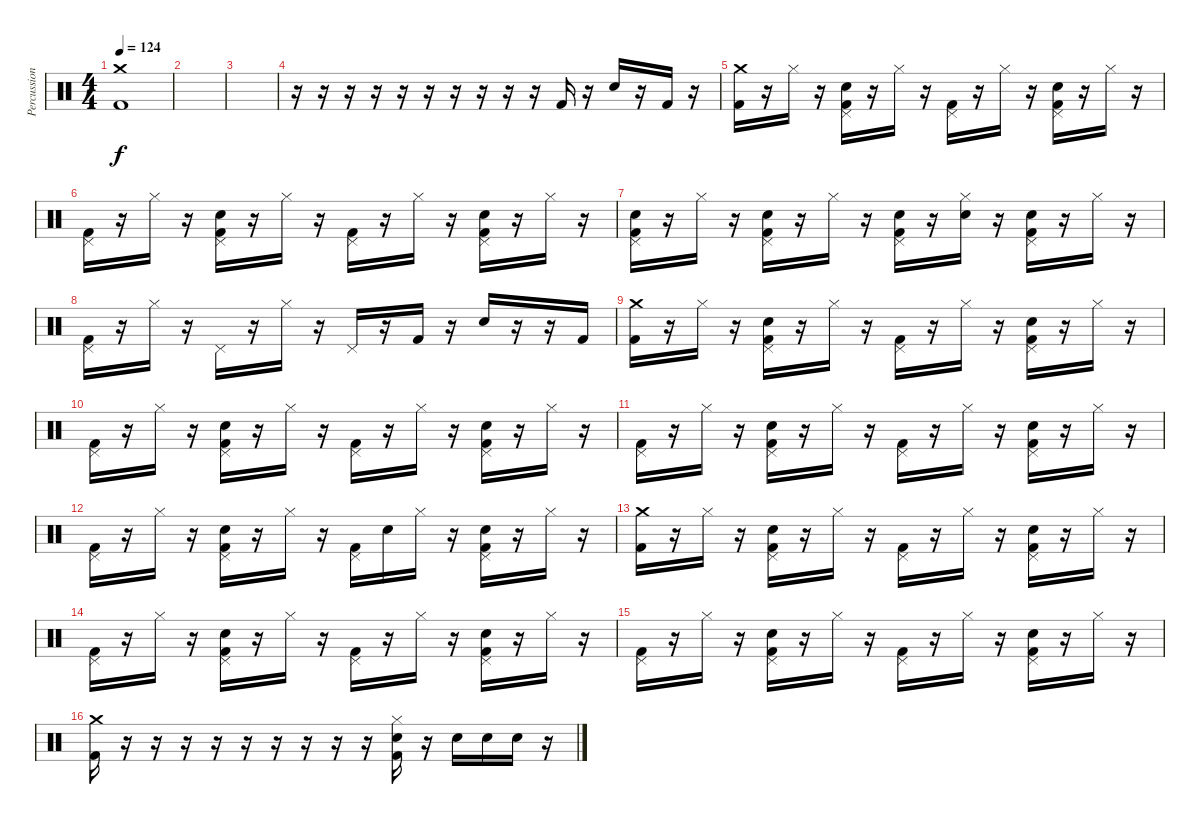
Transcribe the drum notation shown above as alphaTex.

\track ("Percussion" "Percussion") {instrument percussion}
\staff {score}
\articulation defaults
\ts (4 4)
\tempo 124
\clef neutral
\ks c
("Crash medium (hit)" "Kick (hit) 2").1{dy f} |
|
|
r.16 r.16 r.16 r.16 r.16 r.16 r.16 r.16 r.16 r.16 "Kick (hit) 2".16 r.16 "Electric Snare (hit)".16 r.16 "Kick (hit) 2".16 r.16 |
("Crash medium (hit)" "Kick (hit) 2").16 r.16 "Hi-Hat (closed)".16 r.16 ("Pedal Hi-Hat (hit)" "Electric Snare (hit)" "Kick (hit) 2").16 r.16 "Hi-Hat (closed)".16 r.16 ("Pedal Hi-Hat (hit)" "Kick (hit) 2").16 r.16 "Hi-Hat (closed)".16 r.16 ("Pedal Hi-Hat (hit)" "Electric Snare (hit)" "Kick (hit) 2").16 r.16 "Hi-Hat (closed)".16 r.16 |
("Pedal Hi-Hat (hit)" "Kick (hit) 2").16 r.16 "Hi-Hat (closed)".16 r.16 ("Pedal Hi-Hat (hit)" "Electric Snare (hit)" "Kick (hit) 2").16 r.16 "Hi-Hat (closed)".16 r.16 ("Pedal Hi-Hat (hit)" "Kick (hit) 2").16 r.16 "Hi-Hat (closed)".16 r.16 ("Pedal Hi-Hat (hit)" "Electric Snare (hit)" "Kick (hit) 2").16 r.16 "Hi-Hat (closed)".16 r.16 |
("Pedal Hi-Hat (hit)" "Electric Snare (hit)" "Kick (hit) 2").16 r.16 "Hi-Hat (closed)".16 r.16 ("Pedal Hi-Hat (hit)" "Electric Snare (hit)" "Kick (hit) 2").16 r.16 "Hi-Hat (closed)".16 r.16 ("Pedal Hi-Hat (hit)" "Electric Snare (hit)" "Kick (hit) 2").16 r.16 ("Hi-Hat (closed)" "Electric Snare (hit)").16 r.16 ("Pedal Hi-Hat (hit)" "Electric Snare (hit)" "Kick (hit) 2").16 r.16 "Hi-Hat (closed)".16 r.16 |
("Pedal Hi-Hat (hit)" "Kick (hit) 2").16 r.16 "Hi-Hat (closed)".16 r.16 "Pedal Hi-Hat (hit)".16 r.16 "Hi-Hat (closed)".16 r.16 "Pedal Hi-Hat (hit)".16 r.16 "Kick (hit) 2".16 r.16 "Electric Snare (hit)".16 r.16 r.16 "Kick (hit) 2".16 |
("Crash medium (hit)" "Kick (hit) 2").16 r.16 "Hi-Hat (closed)".16 r.16 ("Pedal Hi-Hat (hit)" "Electric Snare (hit)" "Kick (hit) 2").16 r.16 "Hi-Hat (closed)".16 r.16 ("Pedal Hi-Hat (hit)" "Kick (hit) 2").16 r.16 "Hi-Hat (closed)".16 r.16 ("Pedal Hi-Hat (hit)" "Electric Snare (hit)" "Kick (hit) 2").16 r.16 "Hi-Hat (closed)".16 r.16 |
("Pedal Hi-Hat (hit)" "Kick (hit) 2").16 r.16 "Hi-Hat (closed)".16 r.16 ("Pedal Hi-Hat (hit)" "Electric Snare (hit)" "Kick (hit) 2").16 r.16 "Hi-Hat (closed)".16 r.16 ("Pedal Hi-Hat (hit)" "Kick (hit) 2").16 r.16 "Hi-Hat (closed)".16 r.16 ("Pedal Hi-Hat (hit)" "Electric Snare (hit)" "Kick (hit) 2").16 r.16 "Hi-Hat (closed)".16 r.16 |
("Pedal Hi-Hat (hit)" "Kick (hit) 2").16 r.16 "Hi-Hat (closed)".16 r.16 ("Pedal Hi-Hat (hit)" "Electric Snare (hit)" "Kick (hit) 2").16 r.16 "Hi-Hat (closed)".16 r.16 ("Pedal Hi-Hat (hit)" "Kick (hit) 2").16 r.16 "Hi-Hat (closed)".16 r.16 ("Pedal Hi-Hat (hit)" "Electric Snare (hit)" "Kick (hit) 2").16 r.16 "Hi-Hat (closed)".16 r.16 |
("Pedal Hi-Hat (hit)" "Kick (hit) 2").16 r.16 "Hi-Hat (closed)".16 r.16 ("Pedal Hi-Hat (hit)" "Electric Snare (hit)" "Kick (hit) 2").16 r.16 "Hi-Hat (closed)".16 r.16 ("Pedal Hi-Hat (hit)" "Kick (hit) 2").16 "Electric Snare (hit)".16 "Hi-Hat (closed)".16 r.16 ("Pedal Hi-Hat (hit)" "Electric Snare (hit)" "Kick (hit) 2").16 r.16 "Hi-Hat (closed)".16 r.16 |
("Crash medium (hit)" "Kick (hit) 2").16 r.16 "Hi-Hat (closed)".16 r.16 ("Pedal Hi-Hat (hit)" "Electric Snare (hit)" "Kick (hit) 2").16 r.16 "Hi-Hat (closed)".16 r.16 ("Pedal Hi-Hat (hit)" "Kick (hit) 2").16 r.16 "Hi-Hat (closed)".16 r.16 ("Pedal Hi-Hat (hit)" "Electric Snare (hit)" "Kick (hit) 2").16 r.16 "Hi-Hat (closed)".16 r.16 |
("Pedal Hi-Hat (hit)" "Kick (hit) 2").16 r.16 "Hi-Hat (closed)".16 r.16 ("Pedal Hi-Hat (hit)" "Electric Snare (hit)" "Kick (hit) 2").16 r.16 "Hi-Hat (closed)".16 r.16 ("Pedal Hi-Hat (hit)" "Kick (hit) 2").16 r.16 "Hi-Hat (closed)".16 r.16 ("Pedal Hi-Hat (hit)" "Electric Snare (hit)" "Kick (hit) 2").16 r.16 "Hi-Hat (closed)".16 r.16 |
("Pedal Hi-Hat (hit)" "Kick (hit) 2").16 r.16 "Hi-Hat (closed)".16 r.16 ("Pedal Hi-Hat (hit)" "Electric Snare (hit)" "Kick (hit) 2").16 r.16 "Hi-Hat (closed)".16 r.16 ("Pedal Hi-Hat (hit)" "Kick (hit) 2").16 r.16 "Hi-Hat (closed)".16 r.16 ("Pedal Hi-Hat (hit)" "Electric Snare (hit)" "Kick (hit) 2").16 r.16 "Hi-Hat (closed)".16 r.16 |
("Crash medium (hit)" "Kick (hit) 2").16 r.16 r.16 r.16 r.16 r.16 r.16 r.16 r.16 r.16 ("Hi-Hat (closed)" "Electric Snare (hit)" "Kick (hit) 2").16 r.16 "Electric Snare (hit)".16 "Electric Snare (hit)".16 "Electric Snare (hit)".16 r.16
